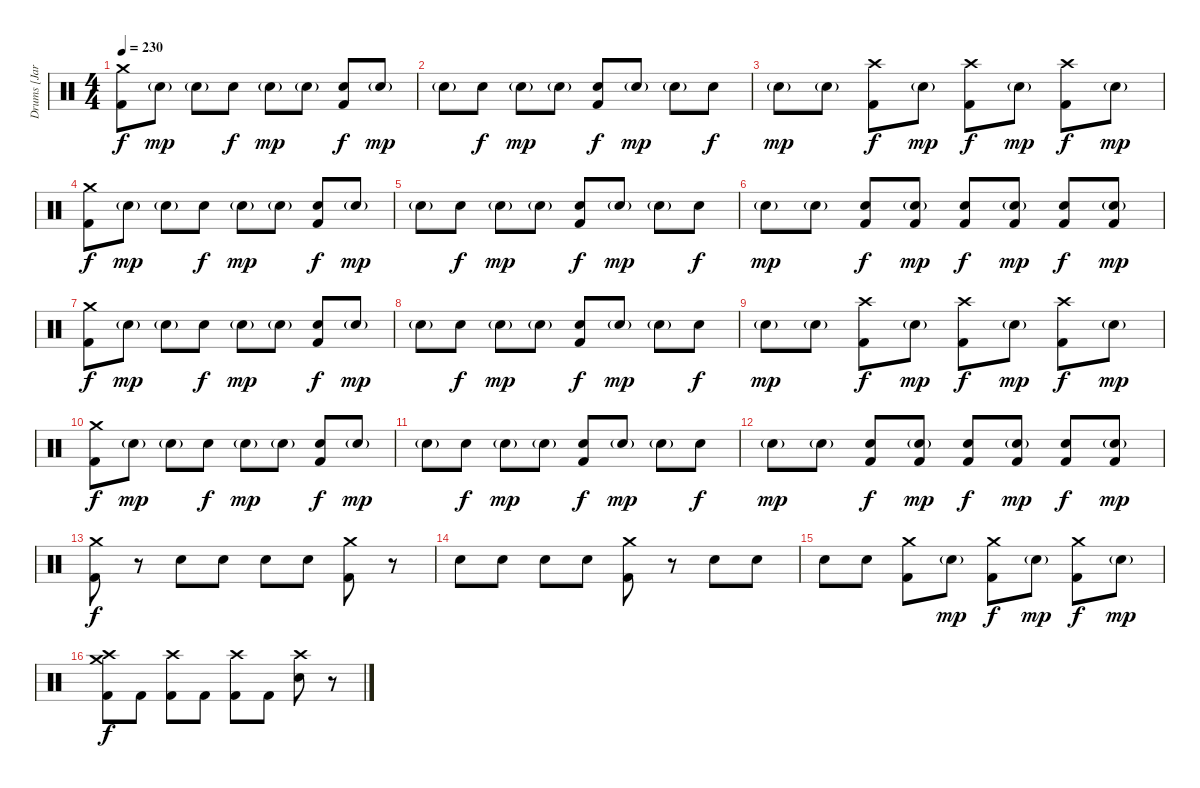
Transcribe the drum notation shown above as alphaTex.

\track ("Drums [Jared]" "Drums [Jar") {instrument percussion}
\staff {score}
\articulation defaults
\ts (4 4)
\tempo 230
\clef neutral
\ks c
("Crash medium (hit)" "Kick (hit) 2").8{dy f} "Electric Snare (hit)"{g}.8{dy mp} "Electric Snare (hit)"{g}.8 "Electric Snare (hit)".8{dy f} "Electric Snare (hit)"{g}.8{dy mp} "Electric Snare (hit)"{g}.8 ("Electric Snare (hit)" "Kick (hit) 2").8{dy f} "Electric Snare (hit)"{g}.8{dy mp} |
"Electric Snare (hit)"{g}.8 "Electric Snare (hit)".8{dy f} "Electric Snare (hit)"{g}.8{dy mp} "Electric Snare (hit)"{g}.8 ("Electric Snare (hit)" "Kick (hit) 2").8{dy f} "Electric Snare (hit)"{g}.8{dy mp} "Electric Snare (hit)"{g}.8 "Electric Snare (hit)".8{dy f} |
"Electric Snare (hit)"{g}.8{dy mp} "Electric Snare (hit)"{g}.8 ("Crash high (hit)" "Kick (hit) 2").8{dy f} "Electric Snare (hit)"{g}.8{dy mp} ("Crash high (hit)" "Kick (hit) 2").8{dy f} "Electric Snare (hit)"{g}.8{dy mp} ("Crash high (hit)" "Kick (hit) 2").8{dy f} "Electric Snare (hit)"{g}.8{dy mp} |
("Crash medium (hit)" "Kick (hit) 2").8{dy f} "Electric Snare (hit)"{g}.8{dy mp} "Electric Snare (hit)"{g}.8 "Electric Snare (hit)".8{dy f} "Electric Snare (hit)"{g}.8{dy mp} "Electric Snare (hit)"{g}.8 ("Electric Snare (hit)" "Kick (hit) 2").8{dy f} "Electric Snare (hit)"{g}.8{dy mp} |
"Electric Snare (hit)"{g}.8 "Electric Snare (hit)".8{dy f} "Electric Snare (hit)"{g}.8{dy mp} "Electric Snare (hit)"{g}.8 ("Electric Snare (hit)" "Kick (hit) 2").8{dy f} "Electric Snare (hit)"{g}.8{dy mp} "Electric Snare (hit)"{g}.8 "Electric Snare (hit)".8{dy f} |
"Electric Snare (hit)"{g}.8{dy mp} "Electric Snare (hit)"{g}.8 ("Electric Snare (hit)" "Kick (hit) 2").8{dy f} ("Electric Snare (hit)"{g} "Kick (hit) 2").8{dy mp} ("Electric Snare (hit)" "Kick (hit) 2").8{dy f} ("Electric Snare (hit)"{g} "Kick (hit) 2").8{dy mp} ("Electric Snare (hit)" "Kick (hit) 2").8{dy f} ("Electric Snare (hit)"{g} "Kick (hit) 2").8{dy mp} |
("Crash medium (hit)" "Kick (hit) 2").8{dy f} "Electric Snare (hit)"{g}.8{dy mp} "Electric Snare (hit)"{g}.8 "Electric Snare (hit)".8{dy f} "Electric Snare (hit)"{g}.8{dy mp} "Electric Snare (hit)"{g}.8 ("Electric Snare (hit)" "Kick (hit) 2").8{dy f} "Electric Snare (hit)"{g}.8{dy mp} |
"Electric Snare (hit)"{g}.8 "Electric Snare (hit)".8{dy f} "Electric Snare (hit)"{g}.8{dy mp} "Electric Snare (hit)"{g}.8 ("Electric Snare (hit)" "Kick (hit) 2").8{dy f} "Electric Snare (hit)"{g}.8{dy mp} "Electric Snare (hit)"{g}.8 "Electric Snare (hit)".8{dy f} |
"Electric Snare (hit)"{g}.8{dy mp} "Electric Snare (hit)"{g}.8 ("Crash high (hit)" "Kick (hit) 2").8{dy f} "Electric Snare (hit)"{g}.8{dy mp} ("Crash high (hit)" "Kick (hit) 2").8{dy f} "Electric Snare (hit)"{g}.8{dy mp} ("Crash high (hit)" "Kick (hit) 2").8{dy f} "Electric Snare (hit)"{g}.8{dy mp} |
("Crash medium (hit)" "Kick (hit) 2").8{dy f} "Electric Snare (hit)"{g}.8{dy mp} "Electric Snare (hit)"{g}.8 "Electric Snare (hit)".8{dy f} "Electric Snare (hit)"{g}.8{dy mp} "Electric Snare (hit)"{g}.8 ("Electric Snare (hit)" "Kick (hit) 2").8{dy f} "Electric Snare (hit)"{g}.8{dy mp} |
"Electric Snare (hit)"{g}.8 "Electric Snare (hit)".8{dy f} "Electric Snare (hit)"{g}.8{dy mp} "Electric Snare (hit)"{g}.8 ("Electric Snare (hit)" "Kick (hit) 2").8{dy f} "Electric Snare (hit)"{g}.8{dy mp} "Electric Snare (hit)"{g}.8 "Electric Snare (hit)".8{dy f} |
"Electric Snare (hit)"{g}.8{dy mp} "Electric Snare (hit)"{g}.8 ("Electric Snare (hit)" "Kick (hit) 2").8{dy f} ("Electric Snare (hit)"{g} "Kick (hit) 2").8{dy mp} ("Electric Snare (hit)" "Kick (hit) 2").8{dy f} ("Electric Snare (hit)"{g} "Kick (hit) 2").8{dy mp} ("Electric Snare (hit)" "Kick (hit) 2").8{dy f} ("Electric Snare (hit)"{g} "Kick (hit) 2").8{dy mp} |
("Crash medium (hit)" "Kick (hit) 2").8{dy f} r.8 "Electric Snare (hit)".8 "Electric Snare (hit)".8 "Electric Snare (hit)".8 "Electric Snare (hit)".8 ("Crash medium (hit)" "Kick (hit) 2").8 r.8 |
"Electric Snare (hit)".8 "Electric Snare (hit)".8 "Electric Snare (hit)".8 "Electric Snare (hit)".8 ("Crash medium (hit)" "Kick (hit) 2").8 r.8 "Electric Snare (hit)".8 "Electric Snare (hit)".8 |
"Electric Snare (hit)".8 "Electric Snare (hit)".8 ("Crash medium (hit)" "Kick (hit) 2").8 "Electric Snare (hit)"{g}.8{dy mp} ("Crash medium (hit)" "Kick (hit) 2").8{dy f} "Electric Snare (hit)"{g}.8{dy mp} ("Crash medium (hit)" "Kick (hit) 2").8{dy f} "Electric Snare (hit)"{g}.8{dy mp} |
("Crash medium (hit)" "Crash high (hit)" "Kick (hit) 2").8{dy f} "Kick (hit) 2".8 ("Crash high (hit)" "Kick (hit) 2").8 "Kick (hit) 2".8 ("Crash high (hit)" "Kick (hit) 2").8 "Kick (hit) 2".8 ("Crash high (hit)" "Electric Snare (hit)").8 r.8
